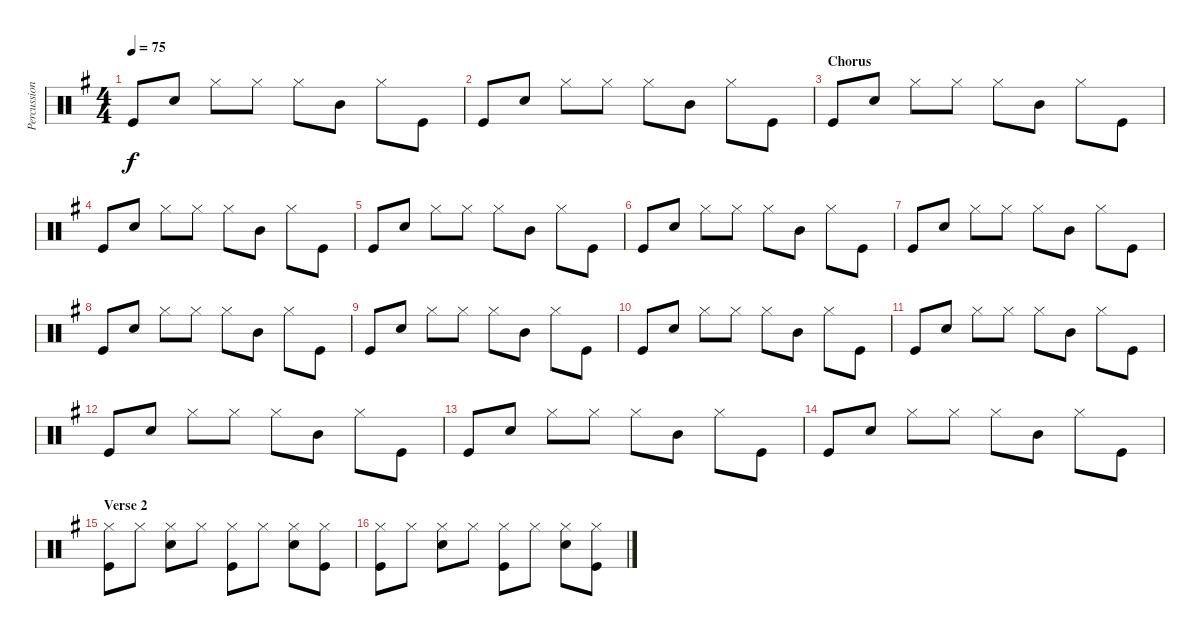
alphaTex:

\track ("Percussion" "Percussion") {instrument percussion}
\staff {score}
\articulation defaults
\ts (4 4)
\tempo 75
\clef neutral
\ks g "Kick (hit)".8{dy f} "Snare (hit) 2".8 "Hi-Hat (closed)".8 "Hi-Hat (closed)".8 "Hi-Hat (closed)".8 "Mid Tom (hit)".8 "Hi-Hat (closed)".8 "Kick (hit)".8
|
"Kick (hit)".8 "Snare (hit) 2".8 "Hi-Hat (closed)".8 "Hi-Hat (closed)".8 "Hi-Hat (closed)".8 "Mid Tom (hit)".8 "Hi-Hat (closed)".8 "Kick (hit)".8 |
\section ("" "Chorus")
"Kick (hit)".8 "Snare (hit) 2".8 "Hi-Hat (closed)".8 "Hi-Hat (closed)".8 "Hi-Hat (closed)".8 "Mid Tom (hit)".8 "Hi-Hat (closed)".8 "Kick (hit)".8 |
"Kick (hit)".8 "Snare (hit) 2".8 "Hi-Hat (closed)".8 "Hi-Hat (closed)".8 "Hi-Hat (closed)".8 "Mid Tom (hit)".8 "Hi-Hat (closed)".8 "Kick (hit)".8 |
"Kick (hit)".8 "Snare (hit) 2".8 "Hi-Hat (closed)".8 "Hi-Hat (closed)".8 "Hi-Hat (closed)".8 "Mid Tom (hit)".8 "Hi-Hat (closed)".8 "Kick (hit)".8 |
"Kick (hit)".8 "Snare (hit) 2".8 "Hi-Hat (closed)".8 "Hi-Hat (closed)".8 "Hi-Hat (closed)".8 "Mid Tom (hit)".8 "Hi-Hat (closed)".8 "Kick (hit)".8 |
"Kick (hit)".8 "Snare (hit) 2".8 "Hi-Hat (closed)".8 "Hi-Hat (closed)".8 "Hi-Hat (closed)".8 "Mid Tom (hit)".8 "Hi-Hat (closed)".8 "Kick (hit)".8 |
"Kick (hit)".8 "Snare (hit) 2".8 "Hi-Hat (closed)".8 "Hi-Hat (closed)".8 "Hi-Hat (closed)".8 "Mid Tom (hit)".8 "Hi-Hat (closed)".8 "Kick (hit)".8 |
"Kick (hit)".8 "Snare (hit) 2".8 "Hi-Hat (closed)".8 "Hi-Hat (closed)".8 "Hi-Hat (closed)".8 "Mid Tom (hit)".8 "Hi-Hat (closed)".8 "Kick (hit)".8 |
"Kick (hit)".8 "Snare (hit) 2".8 "Hi-Hat (closed)".8 "Hi-Hat (closed)".8 "Hi-Hat (closed)".8 "Mid Tom (hit)".8 "Hi-Hat (closed)".8 "Kick (hit)".8 |
"Kick (hit)".8 "Snare (hit) 2".8 "Hi-Hat (closed)".8 "Hi-Hat (closed)".8 "Hi-Hat (closed)".8 "Mid Tom (hit)".8 "Hi-Hat (closed)".8 "Kick (hit)".8 |
"Kick (hit)".8 "Snare (hit) 2".8 "Hi-Hat (closed)".8 "Hi-Hat (closed)".8 "Hi-Hat (closed)".8 "Mid Tom (hit)".8 "Hi-Hat (closed)".8 "Kick (hit)".8 |
"Kick (hit)".8 "Snare (hit) 2".8 "Hi-Hat (closed)".8 "Hi-Hat (closed)".8 "Hi-Hat (closed)".8 "Mid Tom (hit)".8 "Hi-Hat (closed)".8 "Kick (hit)".8 |
"Kick (hit)".8 "Snare (hit) 2".8 "Hi-Hat (closed)".8 "Hi-Hat (closed)".8 "Hi-Hat (closed)".8 "Mid Tom (hit)".8 "Hi-Hat (closed)".8 "Kick (hit)".8 |
\section ("" "Verse 2")
("Hi-Hat (closed)" "Kick (hit)").8 "Hi-Hat (closed)".8 ("Hi-Hat (closed)" "Snare (hit) 2").8 "Hi-Hat (closed)".8 ("Hi-Hat (closed)" "Kick (hit)").8 "Hi-Hat (closed)".8 ("Hi-Hat (closed)" "Snare (hit) 2").8 ("Hi-Hat (closed)" "Kick (hit)").8 |
("Hi-Hat (closed)" "Kick (hit)").8 "Hi-Hat (closed)".8 ("Hi-Hat (closed)" "Snare (hit) 2").8 "Hi-Hat (closed)".8 ("Hi-Hat (closed)" "Kick (hit)").8 "Hi-Hat (closed)".8 ("Hi-Hat (closed)" "Snare (hit) 2").8 ("Hi-Hat (closed)" "Kick (hit)").8
